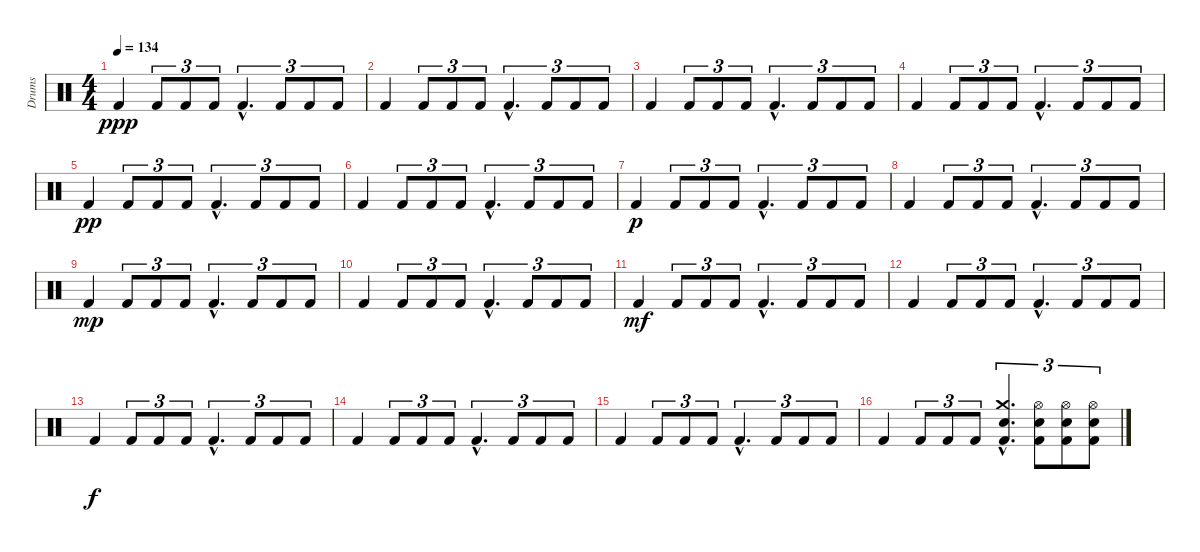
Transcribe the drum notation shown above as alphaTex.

\track ("Drums" "Drums") {instrument percussion}
\staff {score}
\articulation defaults
\ts (4 4)
\tempo 134
\clef neutral
\ks c "Kick (hit) 2".4{dy ppp} "Kick (hit) 2".8{tu (3 2)} "Kick (hit) 2".8{tu (3 2)} "Kick (hit) 2".8{tu (3 2)} "Kick (hit) 2"{hac}.4{d tu (3 2)} "Kick (hit) 2".8{tu (3 2)} "Kick (hit) 2".8{tu (3 2)} "Kick (hit) 2".8{tu (3 2)}
|
"Kick (hit) 2".4 "Kick (hit) 2".8{tu (3 2)} "Kick (hit) 2".8{tu (3 2)} "Kick (hit) 2".8{tu (3 2)} "Kick (hit) 2"{hac}.4{d tu (3 2)} "Kick (hit) 2".8{tu (3 2)} "Kick (hit) 2".8{tu (3 2)} "Kick (hit) 2".8{tu (3 2)} |
"Kick (hit) 2".4 "Kick (hit) 2".8{tu (3 2)} "Kick (hit) 2".8{tu (3 2)} "Kick (hit) 2".8{tu (3 2)} "Kick (hit) 2"{hac}.4{d tu (3 2)} "Kick (hit) 2".8{tu (3 2)} "Kick (hit) 2".8{tu (3 2)} "Kick (hit) 2".8{tu (3 2)} |
"Kick (hit) 2".4 "Kick (hit) 2".8{tu (3 2)} "Kick (hit) 2".8{tu (3 2)} "Kick (hit) 2".8{tu (3 2)} "Kick (hit) 2"{hac}.4{d tu (3 2)} "Kick (hit) 2".8{tu (3 2)} "Kick (hit) 2".8{tu (3 2)} "Kick (hit) 2".8{tu (3 2)} |
"Kick (hit) 2".4{dy pp} "Kick (hit) 2".8{tu (3 2)} "Kick (hit) 2".8{tu (3 2)} "Kick (hit) 2".8{tu (3 2)} "Kick (hit) 2"{hac}.4{d tu (3 2)} "Kick (hit) 2".8{tu (3 2)} "Kick (hit) 2".8{tu (3 2)} "Kick (hit) 2".8{tu (3 2)} |
"Kick (hit) 2".4 "Kick (hit) 2".8{tu (3 2)} "Kick (hit) 2".8{tu (3 2)} "Kick (hit) 2".8{tu (3 2)} "Kick (hit) 2"{hac}.4{d tu (3 2)} "Kick (hit) 2".8{tu (3 2)} "Kick (hit) 2".8{tu (3 2)} "Kick (hit) 2".8{tu (3 2)} |
"Kick (hit) 2".4{dy p} "Kick (hit) 2".8{tu (3 2)} "Kick (hit) 2".8{tu (3 2)} "Kick (hit) 2".8{tu (3 2)} "Kick (hit) 2"{hac}.4{d tu (3 2)} "Kick (hit) 2".8{tu (3 2)} "Kick (hit) 2".8{tu (3 2)} "Kick (hit) 2".8{tu (3 2)} |
"Kick (hit) 2".4 "Kick (hit) 2".8{tu (3 2)} "Kick (hit) 2".8{tu (3 2)} "Kick (hit) 2".8{tu (3 2)} "Kick (hit) 2"{hac}.4{d tu (3 2)} "Kick (hit) 2".8{tu (3 2)} "Kick (hit) 2".8{tu (3 2)} "Kick (hit) 2".8{tu (3 2)} |
"Kick (hit) 2".4{dy mp} "Kick (hit) 2".8{tu (3 2)} "Kick (hit) 2".8{tu (3 2)} "Kick (hit) 2".8{tu (3 2)} "Kick (hit) 2"{hac}.4{d tu (3 2)} "Kick (hit) 2".8{tu (3 2)} "Kick (hit) 2".8{tu (3 2)} "Kick (hit) 2".8{tu (3 2)} |
"Kick (hit) 2".4 "Kick (hit) 2".8{tu (3 2)} "Kick (hit) 2".8{tu (3 2)} "Kick (hit) 2".8{tu (3 2)} "Kick (hit) 2"{hac}.4{d tu (3 2)} "Kick (hit) 2".8{tu (3 2)} "Kick (hit) 2".8{tu (3 2)} "Kick (hit) 2".8{tu (3 2)} |
"Kick (hit) 2".4{dy mf} "Kick (hit) 2".8{tu (3 2)} "Kick (hit) 2".8{tu (3 2)} "Kick (hit) 2".8{tu (3 2)} "Kick (hit) 2"{hac}.4{d tu (3 2)} "Kick (hit) 2".8{tu (3 2)} "Kick (hit) 2".8{tu (3 2)} "Kick (hit) 2".8{tu (3 2)} |
"Kick (hit) 2".4 "Kick (hit) 2".8{tu (3 2)} "Kick (hit) 2".8{tu (3 2)} "Kick (hit) 2".8{tu (3 2)} "Kick (hit) 2"{hac}.4{d tu (3 2)} "Kick (hit) 2".8{tu (3 2)} "Kick (hit) 2".8{tu (3 2)} "Kick (hit) 2".8{tu (3 2)} |
"Kick (hit) 2".4{dy f} "Kick (hit) 2".8{tu (3 2)} "Kick (hit) 2".8{tu (3 2)} "Kick (hit) 2".8{tu (3 2)} "Kick (hit) 2"{hac}.4{d tu (3 2)} "Kick (hit) 2".8{tu (3 2)} "Kick (hit) 2".8{tu (3 2)} "Kick (hit) 2".8{tu (3 2)} |
"Kick (hit) 2".4 "Kick (hit) 2".8{tu (3 2)} "Kick (hit) 2".8{tu (3 2)} "Kick (hit) 2".8{tu (3 2)} "Kick (hit) 2"{hac}.4{d tu (3 2)} "Kick (hit) 2".8{tu (3 2)} "Kick (hit) 2".8{tu (3 2)} "Kick (hit) 2".8{tu (3 2)} |
"Kick (hit) 2".4 "Kick (hit) 2".8{tu (3 2)} "Kick (hit) 2".8{tu (3 2)} "Kick (hit) 2".8{tu (3 2)} "Kick (hit) 2"{hac}.4{d tu (3 2)} "Kick (hit) 2".8{tu (3 2)} "Kick (hit) 2".8{tu (3 2)} "Kick (hit) 2".8{tu (3 2)} |
"Kick (hit) 2".4 "Kick (hit) 2".8{tu (3 2)} "Kick (hit) 2".8{tu (3 2)} "Kick (hit) 2".8{tu (3 2)} ("Crash medium (hit)"{hac} "Electric Snare (hit)"{hac} "Kick (hit) 2"{hac}).4{d tu (3 2)} ("Hi-Hat (open)" "Electric Snare (hit)" "Kick (hit) 2").8{tu (3 2)} ("Hi-Hat (open)" "Electric Snare (hit)" "Kick (hit) 2").8{tu (3 2)} ("Hi-Hat (open)" "Electric Snare (hit)" "Kick (hit) 2").8{tu (3 2)}
